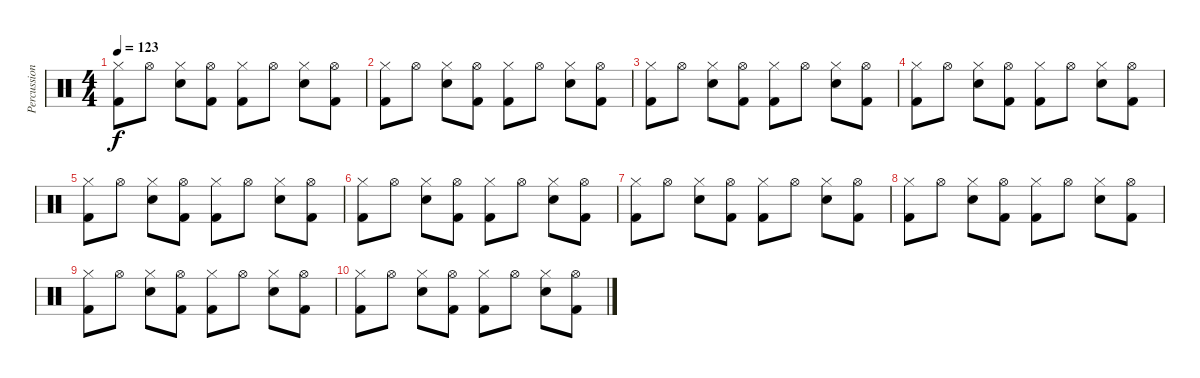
\track ("Percussion" "Percussion") {instrument percussion}
\staff {score}
\articulation defaults
\ts (4 4)
\tempo 123
\clef neutral
\ks c
("Hi-Hat (closed)" "Kick (hit) 2").8{dy f} "Hi-Hat (open)".8 ("Hi-Hat (closed)" "Electric Snare (hit)").8 ("Hi-Hat (open)" "Kick (hit) 2").8 ("Hi-Hat (closed)" "Kick (hit) 2").8 "Hi-Hat (open)".8 ("Hi-Hat (closed)" "Electric Snare (hit)").8 ("Hi-Hat (open)" "Kick (hit) 2").8 |
("Hi-Hat (closed)" "Kick (hit) 2").8 "Hi-Hat (open)".8 ("Hi-Hat (closed)" "Electric Snare (hit)").8 ("Hi-Hat (open)" "Kick (hit) 2").8 ("Hi-Hat (closed)" "Kick (hit) 2").8 "Hi-Hat (open)".8 ("Hi-Hat (closed)" "Electric Snare (hit)").8 ("Hi-Hat (open)" "Kick (hit) 2").8 |
("Hi-Hat (closed)" "Kick (hit) 2").8 "Hi-Hat (open)".8 ("Hi-Hat (closed)" "Electric Snare (hit)").8 ("Hi-Hat (open)" "Kick (hit) 2").8 ("Hi-Hat (closed)" "Kick (hit) 2").8 "Hi-Hat (open)".8 ("Hi-Hat (closed)" "Electric Snare (hit)").8 ("Hi-Hat (open)" "Kick (hit) 2").8 |
("Hi-Hat (closed)" "Kick (hit) 2").8 "Hi-Hat (open)".8 ("Hi-Hat (closed)" "Electric Snare (hit)").8 ("Hi-Hat (open)" "Kick (hit) 2").8 ("Hi-Hat (closed)" "Kick (hit) 2").8 "Hi-Hat (open)".8 ("Hi-Hat (closed)" "Electric Snare (hit)").8 ("Hi-Hat (open)" "Kick (hit) 2").8 |
("Hi-Hat (closed)" "Kick (hit) 2").8 "Hi-Hat (open)".8 ("Hi-Hat (closed)" "Electric Snare (hit)").8 ("Hi-Hat (open)" "Kick (hit) 2").8 ("Hi-Hat (closed)" "Kick (hit) 2").8 "Hi-Hat (open)".8 ("Hi-Hat (closed)" "Electric Snare (hit)").8 ("Hi-Hat (open)" "Kick (hit) 2").8 |
("Hi-Hat (closed)" "Kick (hit) 2").8 "Hi-Hat (open)".8 ("Hi-Hat (closed)" "Electric Snare (hit)").8 ("Hi-Hat (open)" "Kick (hit) 2").8 ("Hi-Hat (closed)" "Kick (hit) 2").8 "Hi-Hat (open)".8 ("Hi-Hat (closed)" "Electric Snare (hit)").8 ("Hi-Hat (open)" "Kick (hit) 2").8 |
("Hi-Hat (closed)" "Kick (hit) 2").8 "Hi-Hat (open)".8 ("Hi-Hat (closed)" "Electric Snare (hit)").8 ("Hi-Hat (open)" "Kick (hit) 2").8 ("Hi-Hat (closed)" "Kick (hit) 2").8 "Hi-Hat (open)".8 ("Hi-Hat (closed)" "Electric Snare (hit)").8 ("Hi-Hat (open)" "Kick (hit) 2").8 |
("Hi-Hat (closed)" "Kick (hit) 2").8 "Hi-Hat (open)".8 ("Hi-Hat (closed)" "Electric Snare (hit)").8 ("Hi-Hat (open)" "Kick (hit) 2").8 ("Hi-Hat (closed)" "Kick (hit) 2").8 "Hi-Hat (open)".8 ("Hi-Hat (closed)" "Electric Snare (hit)").8 ("Hi-Hat (open)" "Kick (hit) 2").8 |
("Hi-Hat (closed)" "Kick (hit) 2").8 "Hi-Hat (open)".8 ("Hi-Hat (closed)" "Electric Snare (hit)").8 ("Hi-Hat (open)" "Kick (hit) 2").8 ("Hi-Hat (closed)" "Kick (hit) 2").8 "Hi-Hat (open)".8 ("Hi-Hat (closed)" "Electric Snare (hit)").8 ("Hi-Hat (open)" "Kick (hit) 2").8 |
("Hi-Hat (closed)" "Kick (hit) 2").8 "Hi-Hat (open)".8 ("Hi-Hat (closed)" "Electric Snare (hit)").8 ("Hi-Hat (open)" "Kick (hit) 2").8 ("Hi-Hat (closed)" "Kick (hit) 2").8 "Hi-Hat (open)".8 ("Hi-Hat (closed)" "Electric Snare (hit)").8 ("Hi-Hat (open)" "Kick (hit) 2").8
